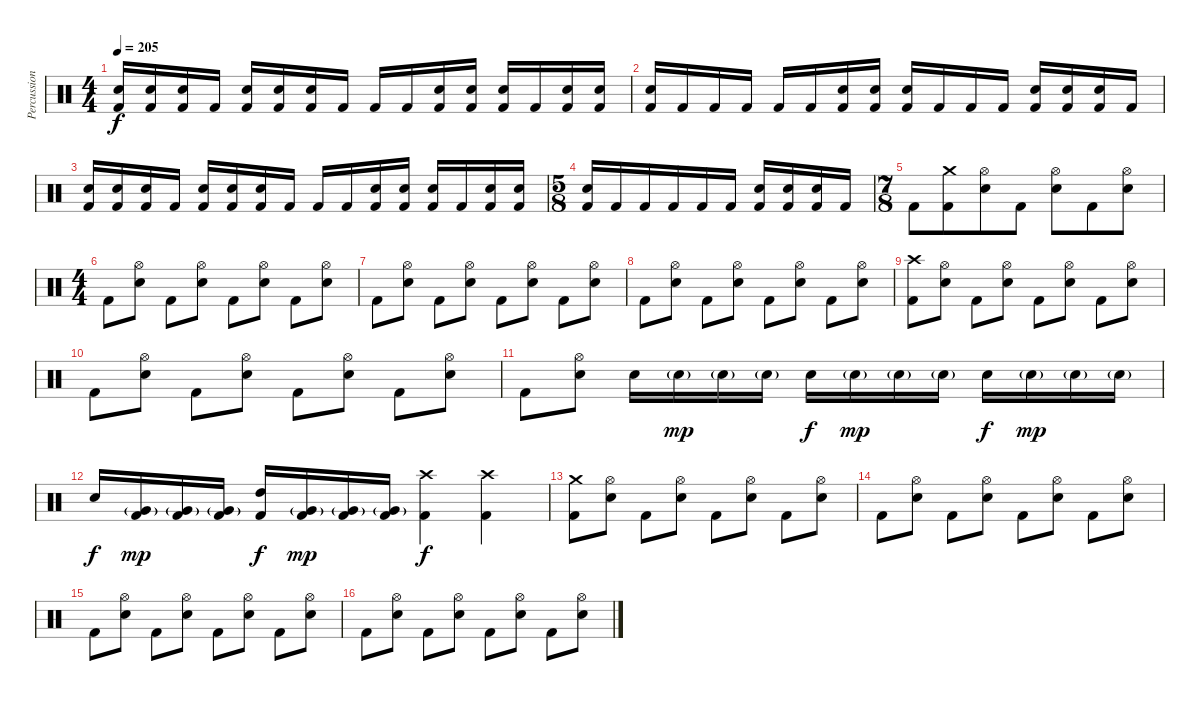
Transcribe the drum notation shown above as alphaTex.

\track ("Percussions" "Percussion") {instrument percussion}
\staff {score}
\articulation defaults
\ts (4 4)
\tempo 205
\clef neutral
\ks c
("Electric Snare (hit)" "Kick (hit) 2").16{dy f} ("Electric Snare (hit)" "Kick (hit) 2").16 ("Electric Snare (hit)" "Kick (hit) 2").16 "Kick (hit) 2".16 ("Electric Snare (hit)" "Kick (hit) 2").16 ("Electric Snare (hit)" "Kick (hit) 2").16 ("Electric Snare (hit)" "Kick (hit) 2").16 "Kick (hit) 2".16 "Kick (hit) 2".16 "Kick (hit) 2".16 ("Electric Snare (hit)" "Kick (hit) 2").16 ("Electric Snare (hit)" "Kick (hit) 2").16 ("Electric Snare (hit)" "Kick (hit) 2").16 "Kick (hit) 2".16 ("Electric Snare (hit)" "Kick (hit) 2").16 ("Electric Snare (hit)" "Kick (hit) 2").16 |
("Electric Snare (hit)" "Kick (hit) 2").16 "Kick (hit) 2".16 "Kick (hit) 2".16 "Kick (hit) 2".16 "Kick (hit) 2".16 "Kick (hit) 2".16 ("Electric Snare (hit)" "Kick (hit) 2").16 ("Electric Snare (hit)" "Kick (hit) 2").16 ("Electric Snare (hit)" "Kick (hit) 2").16 "Kick (hit) 2".16 "Kick (hit) 2".16 "Kick (hit) 2".16 ("Electric Snare (hit)" "Kick (hit) 2").16 ("Electric Snare (hit)" "Kick (hit) 2").16 ("Electric Snare (hit)" "Kick (hit) 2").16 "Kick (hit) 2".16 |
("Electric Snare (hit)" "Kick (hit) 2").16 ("Electric Snare (hit)" "Kick (hit) 2").16 ("Electric Snare (hit)" "Kick (hit) 2").16 "Kick (hit) 2".16 ("Electric Snare (hit)" "Kick (hit) 2").16 ("Electric Snare (hit)" "Kick (hit) 2").16 ("Electric Snare (hit)" "Kick (hit) 2").16 "Kick (hit) 2".16 "Kick (hit) 2".16 "Kick (hit) 2".16 ("Electric Snare (hit)" "Kick (hit) 2").16 ("Electric Snare (hit)" "Kick (hit) 2").16 ("Electric Snare (hit)" "Kick (hit) 2").16 "Kick (hit) 2".16 ("Electric Snare (hit)" "Kick (hit) 2").16 ("Electric Snare (hit)" "Kick (hit) 2").16 |
\ts (5 8)
("Electric Snare (hit)" "Kick (hit) 2").16 "Kick (hit) 2".16 "Kick (hit) 2".16 "Kick (hit) 2".16 "Kick (hit) 2".16 "Kick (hit) 2".16 ("Electric Snare (hit)" "Kick (hit) 2").16 ("Electric Snare (hit)" "Kick (hit) 2").16 ("Electric Snare (hit)" "Kick (hit) 2").16 "Kick (hit) 2".16 |
\ts (7 8)
"Kick (hit) 2".8 ("Crash medium (hit)" "Kick (hit) 2").8 ("Hi-Hat (open)" "Electric Snare (hit)").8 "Kick (hit) 2".8 ("Hi-Hat (open)" "Electric Snare (hit)").8 "Kick (hit) 2".8 ("Hi-Hat (open)" "Electric Snare (hit)").8 |
\ts (4 4)
"Kick (hit) 2".8 ("Hi-Hat (open)" "Electric Snare (hit)").8 "Kick (hit) 2".8 ("Hi-Hat (open)" "Electric Snare (hit)").8 "Kick (hit) 2".8 ("Hi-Hat (open)" "Electric Snare (hit)").8 "Kick (hit) 2".8 ("Hi-Hat (open)" "Electric Snare (hit)").8 |
"Kick (hit) 2".8 ("Hi-Hat (open)" "Electric Snare (hit)").8 "Kick (hit) 2".8 ("Hi-Hat (open)" "Electric Snare (hit)").8 "Kick (hit) 2".8 ("Hi-Hat (open)" "Electric Snare (hit)").8 "Kick (hit) 2".8 ("Hi-Hat (open)" "Electric Snare (hit)").8 |
"Kick (hit) 2".8 ("Hi-Hat (open)" "Electric Snare (hit)").8 "Kick (hit) 2".8 ("Hi-Hat (open)" "Electric Snare (hit)").8 "Kick (hit) 2".8 ("Hi-Hat (open)" "Electric Snare (hit)").8 "Kick (hit) 2".8 ("Hi-Hat (open)" "Electric Snare (hit)").8 |
("Crash high (hit)" "Kick (hit) 2").8 ("Hi-Hat (open)" "Electric Snare (hit)").8 "Kick (hit) 2".8 ("Hi-Hat (open)" "Electric Snare (hit)").8 "Kick (hit) 2".8 ("Hi-Hat (open)" "Electric Snare (hit)").8 "Kick (hit) 2".8 ("Hi-Hat (open)" "Electric Snare (hit)").8 |
"Kick (hit) 2".8 ("Hi-Hat (open)" "Electric Snare (hit)").8 "Kick (hit) 2".8 ("Hi-Hat (open)" "Electric Snare (hit)").8 "Kick (hit) 2".8 ("Hi-Hat (open)" "Electric Snare (hit)").8 "Kick (hit) 2".8 ("Hi-Hat (open)" "Electric Snare (hit)").8 |
"Kick (hit) 2".8 ("Hi-Hat (open)" "Electric Snare (hit)").8 "Electric Snare (hit)".16 "Electric Snare (hit)"{g}.16{dy mp} "Electric Snare (hit)"{g}.16 "Electric Snare (hit)"{g}.16 "Electric Snare (hit)".16{dy f} "Electric Snare (hit)"{g}.16{dy mp} "Electric Snare (hit)"{g}.16 "Electric Snare (hit)"{g}.16 "Electric Snare (hit)".16{dy f} "Electric Snare (hit)"{g}.16{dy mp} "Electric Snare (hit)"{g}.16 "Electric Snare (hit)"{g}.16 |
"Electric Snare (hit)".16{dy f} ("Very Low Tom (hit)"{g} "Kick (hit) 2").16{dy mp} ("Very Low Tom (hit)"{g} "Kick (hit) 2").16 ("Very Low Tom (hit)"{g} "Kick (hit) 2").16 ("High Tom (hit)" "Kick (hit) 2").16{dy f} ("Very Low Tom (hit)"{g} "Kick (hit) 2").16{dy mp} ("Very Low Tom (hit)"{g} "Kick (hit) 2").16 ("Very Low Tom (hit)"{g} "Kick (hit) 2").16 ("Crash high (hit)" "Kick (hit) 2").4{dy f} ("Crash high (hit)" "Kick (hit) 2").4 |
("Crash medium (hit)" "Kick (hit) 2").8 ("Hi-Hat (open)" "Electric Snare (hit)").8 "Kick (hit) 2".8 ("Hi-Hat (open)" "Electric Snare (hit)").8 "Kick (hit) 2".8 ("Hi-Hat (open)" "Electric Snare (hit)").8 "Kick (hit) 2".8 ("Hi-Hat (open)" "Electric Snare (hit)").8 |
"Kick (hit) 2".8 ("Hi-Hat (open)" "Electric Snare (hit)").8 "Kick (hit) 2".8 ("Hi-Hat (open)" "Electric Snare (hit)").8 "Kick (hit) 2".8 ("Hi-Hat (open)" "Electric Snare (hit)").8 "Kick (hit) 2".8 ("Hi-Hat (open)" "Electric Snare (hit)").8 |
"Kick (hit) 2".8 ("Hi-Hat (open)" "Electric Snare (hit)").8 "Kick (hit) 2".8 ("Hi-Hat (open)" "Electric Snare (hit)").8 "Kick (hit) 2".8 ("Hi-Hat (open)" "Electric Snare (hit)").8 "Kick (hit) 2".8 ("Hi-Hat (open)" "Electric Snare (hit)").8 |
"Kick (hit) 2".8 ("Hi-Hat (open)" "Electric Snare (hit)").8 "Kick (hit) 2".8 ("Hi-Hat (open)" "Electric Snare (hit)").8 "Kick (hit) 2".8 ("Hi-Hat (open)" "Electric Snare (hit)").8 "Kick (hit) 2".8 ("Hi-Hat (open)" "Electric Snare (hit)").8
